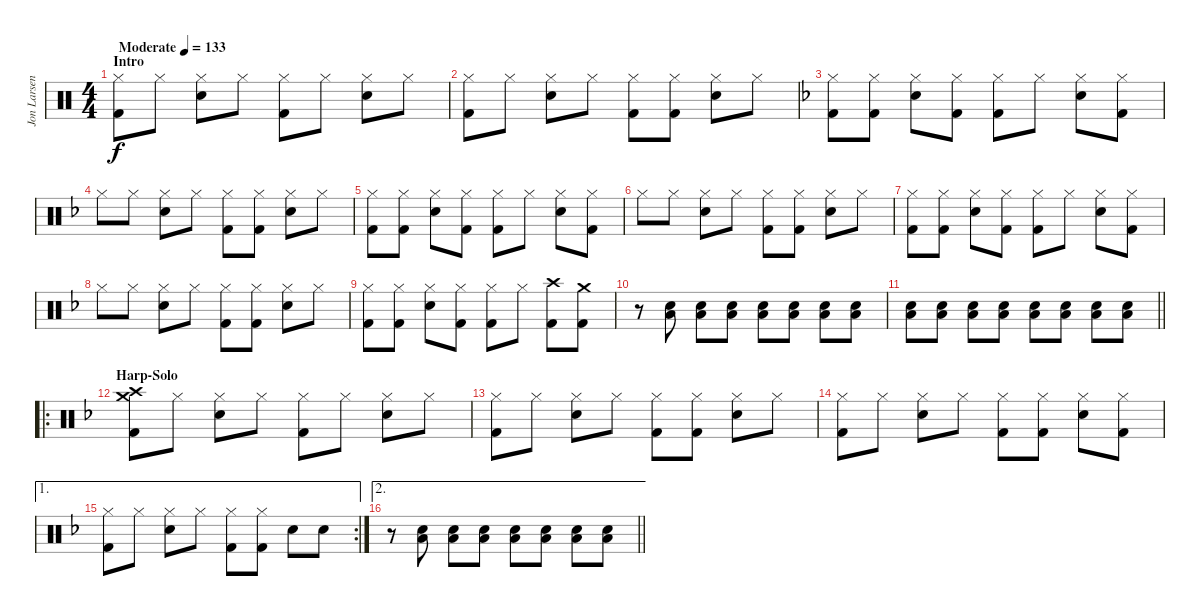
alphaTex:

\track ("Jon Larsen" "Jon Larsen") {instrument percussion}
\staff {score}
\articulation defaults
\ts (4 4)
\section ("" "Intro")
\tempo (133 "Moderate")
\clef neutral
\ks c
("Hi-Hat (closed)" "Kick (hit) 2").8{dy f} "Hi-Hat (closed)".8 ("Hi-Hat (closed)" "Electric Snare (hit)").8 "Hi-Hat (closed)".8 ("Hi-Hat (closed)" "Kick (hit) 2").8 "Hi-Hat (closed)".8 ("Hi-Hat (closed)" "Electric Snare (hit)").8 "Hi-Hat (closed)".8 |
("Hi-Hat (closed)" "Kick (hit) 2").8 "Hi-Hat (closed)".8 ("Hi-Hat (closed)" "Electric Snare (hit)").8 "Hi-Hat (closed)".8 ("Hi-Hat (closed)" "Kick (hit) 2").8 ("Hi-Hat (closed)" "Kick (hit) 2").8 ("Hi-Hat (closed)" "Electric Snare (hit)").8 "Hi-Hat (closed)".8 |
\ks f
("Hi-Hat (closed)" "Kick (hit) 2").8 ("Hi-Hat (closed)" "Kick (hit) 2").8 ("Hi-Hat (closed)" "Electric Snare (hit)").8 ("Hi-Hat (closed)" "Kick (hit) 2").8 ("Hi-Hat (closed)" "Kick (hit) 2").8 "Hi-Hat (closed)".8 ("Hi-Hat (closed)" "Electric Snare (hit)").8 ("Hi-Hat (closed)" "Kick (hit) 2").8 |
"Hi-Hat (closed)".8 "Hi-Hat (closed)".8 ("Hi-Hat (closed)" "Electric Snare (hit)").8 "Hi-Hat (closed)".8 ("Hi-Hat (closed)" "Kick (hit) 2").8 ("Hi-Hat (closed)" "Kick (hit) 2").8 ("Hi-Hat (closed)" "Electric Snare (hit)").8 "Hi-Hat (closed)".8 |
("Hi-Hat (closed)" "Kick (hit) 2").8 ("Hi-Hat (closed)" "Kick (hit) 2").8 ("Hi-Hat (closed)" "Electric Snare (hit)").8 ("Hi-Hat (closed)" "Kick (hit) 2").8 ("Hi-Hat (closed)" "Kick (hit) 2").8 "Hi-Hat (closed)".8 ("Hi-Hat (closed)" "Electric Snare (hit)").8 ("Hi-Hat (closed)" "Kick (hit) 2").8 |
"Hi-Hat (closed)".8 "Hi-Hat (closed)".8 ("Hi-Hat (closed)" "Electric Snare (hit)").8 "Hi-Hat (closed)".8 ("Hi-Hat (closed)" "Kick (hit) 2").8 ("Hi-Hat (closed)" "Kick (hit) 2").8 ("Hi-Hat (closed)" "Electric Snare (hit)").8 "Hi-Hat (closed)".8 |
("Hi-Hat (closed)" "Kick (hit) 2").8 ("Hi-Hat (closed)" "Kick (hit) 2").8 ("Hi-Hat (closed)" "Electric Snare (hit)").8 ("Hi-Hat (closed)" "Kick (hit) 2").8 ("Hi-Hat (closed)" "Kick (hit) 2").8 "Hi-Hat (closed)".8 ("Hi-Hat (closed)" "Electric Snare (hit)").8 ("Hi-Hat (closed)" "Kick (hit) 2").8 |
"Hi-Hat (closed)".8 "Hi-Hat (closed)".8 ("Hi-Hat (closed)" "Electric Snare (hit)").8 "Hi-Hat (closed)".8 ("Hi-Hat (closed)" "Kick (hit) 2").8 ("Hi-Hat (closed)" "Kick (hit) 2").8 ("Hi-Hat (closed)" "Electric Snare (hit)").8 "Hi-Hat (closed)".8 |
("Hi-Hat (closed)" "Kick (hit) 2").8 ("Hi-Hat (closed)" "Kick (hit) 2").8 ("Hi-Hat (closed)" "Electric Snare (hit)").8 ("Hi-Hat (closed)" "Kick (hit) 2").8 ("Hi-Hat (closed)" "Kick (hit) 2").8 "Hi-Hat (closed)".8 ("Crash high (hit)" "Kick (hit) 2").8 ("Crash medium (hit)" "Kick (hit) 2").8 |
r.8 ("Low Tom (hit)" "Electric Snare (hit)").8 ("Low Tom (hit)" "Electric Snare (hit)").8 ("Low Tom (hit)" "Electric Snare (hit)").8 ("Low Tom (hit)" "Electric Snare (hit)").8 ("Low Tom (hit)" "Electric Snare (hit)").8 ("Low Tom (hit)" "Electric Snare (hit)").8 ("Low Tom (hit)" "Electric Snare (hit)").8 |
\barLineRight lightlight
("Low Tom (hit)" "Electric Snare (hit)").8 ("Low Tom (hit)" "Electric Snare (hit)").8 ("Low Tom (hit)" "Electric Snare (hit)").8 ("Low Tom (hit)" "Electric Snare (hit)").8 ("Low Tom (hit)" "Electric Snare (hit)").8 ("Low Tom (hit)" "Electric Snare (hit)").8 ("Low Tom (hit)" "Electric Snare (hit)").8 ("Low Tom (hit)" "Electric Snare (hit)").8 |
\ro
\section ("" "Harp-Solo")
("Crash medium (hit)" "Crash high (hit)" "Kick (hit) 2").8 "Hi-Hat (closed)".8 ("Hi-Hat (closed)" "Electric Snare (hit)").8 "Hi-Hat (closed)".8 ("Hi-Hat (closed)" "Kick (hit) 2").8 "Hi-Hat (closed)".8 ("Hi-Hat (closed)" "Electric Snare (hit)").8 "Hi-Hat (closed)".8 |
("Hi-Hat (closed)" "Kick (hit) 2").8 "Hi-Hat (closed)".8 ("Hi-Hat (closed)" "Electric Snare (hit)").8 "Hi-Hat (closed)".8 ("Hi-Hat (closed)" "Kick (hit) 2").8 ("Hi-Hat (closed)" "Kick (hit) 2").8 ("Hi-Hat (closed)" "Electric Snare (hit)").8 "Hi-Hat (closed)".8 |
("Hi-Hat (closed)" "Kick (hit) 2").8 "Hi-Hat (closed)".8 ("Hi-Hat (closed)" "Electric Snare (hit)").8 "Hi-Hat (closed)".8 ("Hi-Hat (closed)" "Kick (hit) 2").8 ("Hi-Hat (closed)" "Kick (hit) 2").8 ("Hi-Hat (closed)" "Electric Snare (hit)").8 ("Hi-Hat (closed)" "Kick (hit) 2").8 |
\ae 1
\rc 2
("Hi-Hat (closed)" "Kick (hit) 2").8 "Hi-Hat (closed)".8 ("Hi-Hat (closed)" "Electric Snare (hit)").8 "Hi-Hat (closed)".8 ("Hi-Hat (closed)" "Kick (hit) 2").8 ("Hi-Hat (closed)" "Kick (hit) 2").8 "Electric Snare (hit)".8 "Electric Snare (hit)".8 |
\ae 2
\barLineRight lightlight
r.8 ("Low Tom (hit)" "Electric Snare (hit)").8 ("Low Tom (hit)" "Electric Snare (hit)").8 ("Low Tom (hit)" "Electric Snare (hit)").8 ("Low Tom (hit)" "Electric Snare (hit)").8 ("Low Tom (hit)" "Electric Snare (hit)").8 ("Low Tom (hit)" "Electric Snare (hit)").8 ("Low Tom (hit)" "Electric Snare (hit)").8
